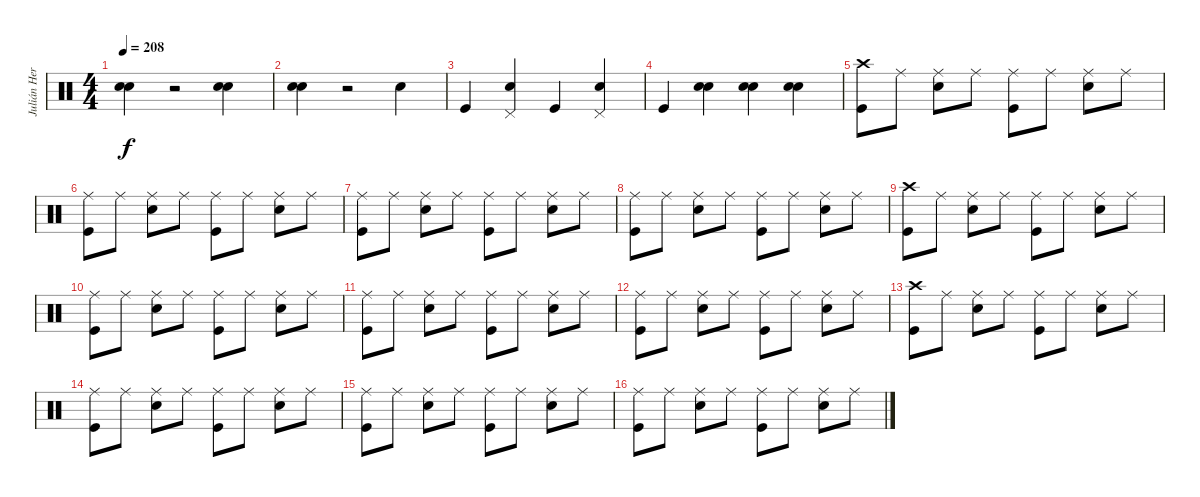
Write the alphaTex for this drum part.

\track ("Julián Hernandez - Batería" "Julián Her") {instrument percussion}
\staff {score}
\articulation defaults
\ts (4 4)
\tempo 208
\clef neutral
\ks c
("Electric Snare (hit)" "Electric Snare (hit)").4{dy f} r.2 ("Electric Snare (hit)" "Electric Snare (hit)").4 |
("Electric Snare (hit)" "Electric Snare (hit)").4 r.2 "Electric Snare (hit)".4 |
"Kick (hit)".4 ("Electric Snare (hit)" "Pedal Hi-Hat (hit)").4 "Kick (hit)".4 ("Electric Snare (hit)" "Pedal Hi-Hat (hit)").4 |
"Kick (hit)".4 ("Electric Snare (hit)" "Electric Snare (hit)").4 ("Electric Snare (hit)" "Electric Snare (hit)").4 ("Electric Snare (hit)" "Electric Snare (hit)").4 |
("Crash high (hit)" "Kick (hit)").8 "Ride (middle)".8 ("Ride (middle)" "Electric Snare (hit)").8 "Ride (middle)".8 ("Ride (middle)" "Kick (hit)").8 "Ride (middle)".8 ("Ride (middle)" "Electric Snare (hit)").8 "Ride (middle)".8 |
("Ride (middle)" "Kick (hit)").8 "Ride (middle)".8 ("Ride (middle)" "Electric Snare (hit)").8 "Ride (middle)".8 ("Ride (middle)" "Kick (hit)").8 "Ride (middle)".8 ("Ride (middle)" "Electric Snare (hit)").8 "Ride (middle)".8 |
("Ride (middle)" "Kick (hit)").8 "Ride (middle)".8 ("Ride (middle)" "Electric Snare (hit)").8 "Ride (middle)".8 ("Ride (middle)" "Kick (hit)").8 "Ride (middle)".8 ("Ride (middle)" "Electric Snare (hit)").8 "Ride (middle)".8 |
("Ride (middle)" "Kick (hit)").8 "Ride (middle)".8 ("Ride (middle)" "Electric Snare (hit)").8 "Ride (middle)".8 ("Ride (middle)" "Kick (hit)").8 "Ride (middle)".8 ("Ride (middle)" "Electric Snare (hit)").8 "Ride (middle)".8 |
("Crash high (hit)" "Kick (hit)").8 "Ride (middle)".8 ("Ride (middle)" "Electric Snare (hit)").8 "Ride (middle)".8 ("Ride (middle)" "Kick (hit)").8 "Ride (middle)".8 ("Ride (middle)" "Electric Snare (hit)").8 "Ride (middle)".8 |
("Ride (middle)" "Kick (hit)").8 "Ride (middle)".8 ("Ride (middle)" "Electric Snare (hit)").8 "Ride (middle)".8 ("Ride (middle)" "Kick (hit)").8 "Ride (middle)".8 ("Ride (middle)" "Electric Snare (hit)").8 "Ride (middle)".8 |
("Ride (middle)" "Kick (hit)").8 "Ride (middle)".8 ("Ride (middle)" "Electric Snare (hit)").8 "Ride (middle)".8 ("Ride (middle)" "Kick (hit)").8 "Ride (middle)".8 ("Ride (middle)" "Electric Snare (hit)").8 "Ride (middle)".8 |
("Ride (middle)" "Kick (hit)").8 "Ride (middle)".8 ("Ride (middle)" "Electric Snare (hit)").8 "Ride (middle)".8 ("Ride (middle)" "Kick (hit)").8 "Ride (middle)".8 ("Ride (middle)" "Electric Snare (hit)").8 "Ride (middle)".8 |
("Crash high (hit)" "Kick (hit)").8 "Ride (middle)".8 ("Ride (middle)" "Electric Snare (hit)").8 "Ride (middle)".8 ("Ride (middle)" "Kick (hit)").8 "Ride (middle)".8 ("Ride (middle)" "Electric Snare (hit)").8 "Ride (middle)".8 |
("Ride (middle)" "Kick (hit)").8 "Ride (middle)".8 ("Ride (middle)" "Electric Snare (hit)").8 "Ride (middle)".8 ("Ride (middle)" "Kick (hit)").8 "Ride (middle)".8 ("Ride (middle)" "Electric Snare (hit)").8 "Ride (middle)".8 |
("Ride (middle)" "Kick (hit)").8 "Ride (middle)".8 ("Ride (middle)" "Electric Snare (hit)").8 "Ride (middle)".8 ("Ride (middle)" "Kick (hit)").8 "Ride (middle)".8 ("Ride (middle)" "Electric Snare (hit)").8 "Ride (middle)".8 |
("Ride (middle)" "Kick (hit)").8 "Ride (middle)".8 ("Ride (middle)" "Electric Snare (hit)").8 "Ride (middle)".8 ("Ride (middle)" "Kick (hit)").8 "Ride (middle)".8 ("Ride (middle)" "Electric Snare (hit)").8 "Ride (middle)".8
